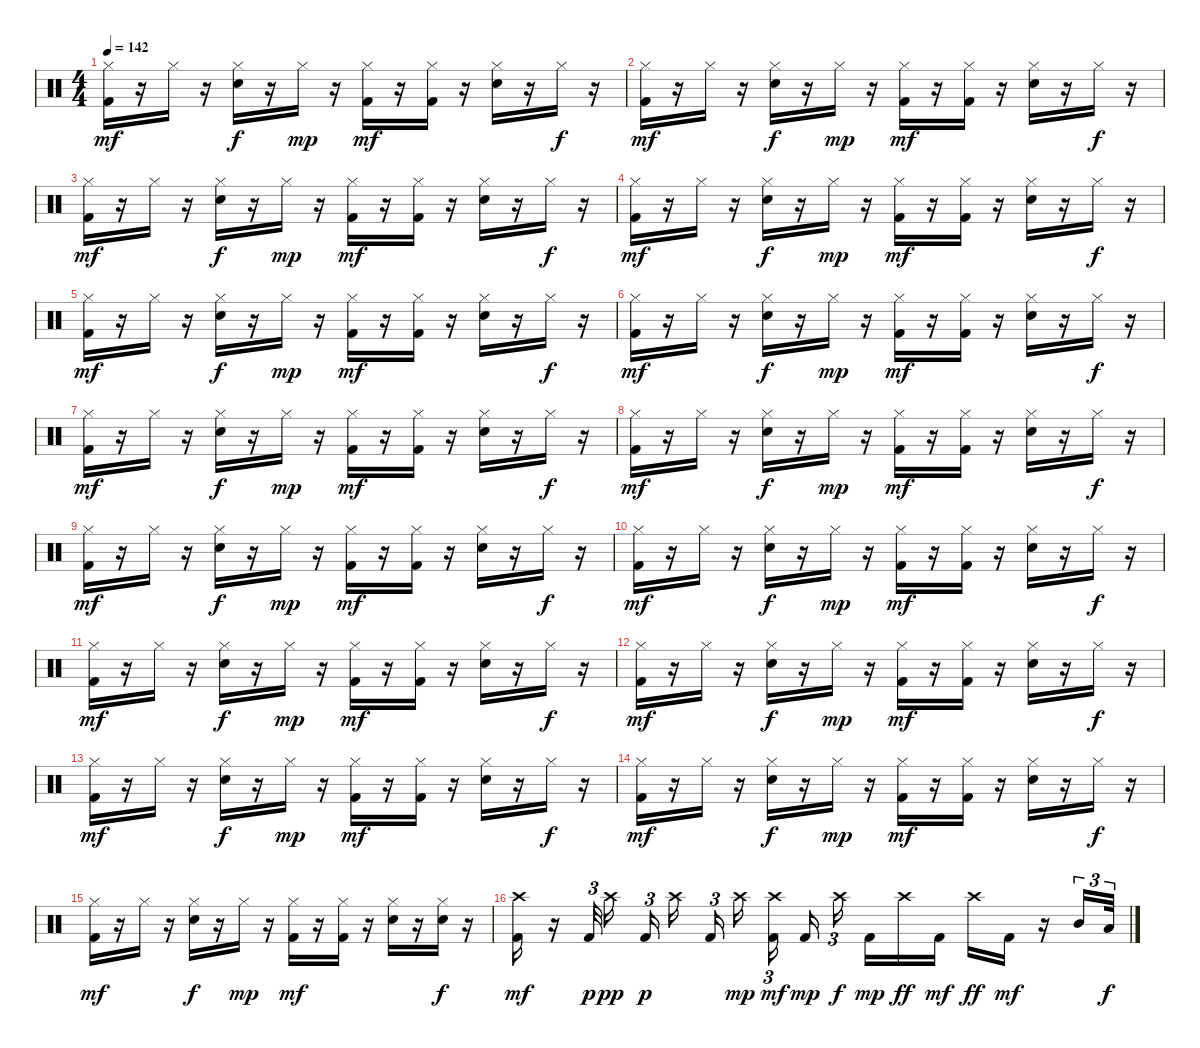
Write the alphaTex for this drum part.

\track "" {instrument percussion}
\staff {score}
\articulation defaults
\ts (4 4)
\tempo 142
\clef neutral
\ks c
("Hi-Hat (closed)" "Kick (hit) 2").16{dy mf} r.16 "Hi-Hat (closed)".16 r.16 ("Electric Snare (hit)" "Hi-Hat (closed)").16{dy f} r.16 "Hi-Hat (closed)".16{dy mp} r.16 ("Kick (hit) 2" "Hi-Hat (closed)").16{dy mf} r.16 ("Hi-Hat (closed)" "Kick (hit) 2").16 r.16 ("Hi-Hat (closed)" "Electric Snare (hit)").16 r.16 "Hi-Hat (closed)".16{dy f} r.16 |
("Hi-Hat (closed)" "Kick (hit) 2").16{dy mf} r.16 "Hi-Hat (closed)".16 r.16 ("Hi-Hat (closed)" "Electric Snare (hit)").16{dy f} r.16 "Hi-Hat (closed)".16{dy mp} r.16 ("Hi-Hat (closed)" "Kick (hit) 2").16{dy mf} r.16 ("Hi-Hat (closed)" "Kick (hit) 2").16 r.16 ("Electric Snare (hit)" "Hi-Hat (closed)").16 r.16 "Hi-Hat (closed)".16{dy f} r.16 |
("Hi-Hat (closed)" "Kick (hit) 2").16{dy mf} r.16 "Hi-Hat (closed)".16 r.16 ("Electric Snare (hit)" "Hi-Hat (closed)").16{dy f} r.16 "Hi-Hat (closed)".16{dy mp} r.16 ("Kick (hit) 2" "Hi-Hat (closed)").16{dy mf} r.16 ("Hi-Hat (closed)" "Kick (hit) 2").16 r.16 ("Electric Snare (hit)" "Hi-Hat (closed)").16 r.16 "Hi-Hat (closed)".16{dy f} r.16 |
("Kick (hit) 2" "Hi-Hat (closed)").16{dy mf} r.16 "Hi-Hat (closed)".16 r.16 ("Hi-Hat (closed)" "Electric Snare (hit)").16{dy f} r.16 "Hi-Hat (closed)".16{dy mp} r.16 ("Kick (hit) 2" "Hi-Hat (closed)").16{dy mf} r.16 ("Kick (hit) 2" "Hi-Hat (closed)").16 r.16 ("Electric Snare (hit)" "Hi-Hat (closed)").16 r.16 "Hi-Hat (closed)".16{dy f} r.16 |
("Kick (hit) 2" "Hi-Hat (closed)").16{dy mf} r.16 "Hi-Hat (closed)".16 r.16 ("Electric Snare (hit)" "Hi-Hat (closed)").16{dy f} r.16 "Hi-Hat (closed)".16{dy mp} r.16 ("Hi-Hat (closed)" "Kick (hit) 2").16{dy mf} r.16 ("Kick (hit) 2" "Hi-Hat (closed)").16 r.16 ("Electric Snare (hit)" "Hi-Hat (closed)").16 r.16 "Hi-Hat (closed)".16{dy f} r.16 |
("Kick (hit) 2" "Hi-Hat (closed)").16{dy mf} r.16 "Hi-Hat (closed)".16 r.16 ("Electric Snare (hit)" "Hi-Hat (closed)").16{dy f} r.16 "Hi-Hat (closed)".16{dy mp} r.16 ("Kick (hit) 2" "Hi-Hat (closed)").16{dy mf} r.16 ("Kick (hit) 2" "Hi-Hat (closed)").16 r.16 ("Hi-Hat (closed)" "Electric Snare (hit)").16 r.16 "Hi-Hat (closed)".16{dy f} r.16 |
("Hi-Hat (closed)" "Kick (hit) 2").16{dy mf} r.16 "Hi-Hat (closed)".16 r.16 ("Hi-Hat (closed)" "Electric Snare (hit)").16{dy f} r.16 "Hi-Hat (closed)".16{dy mp} r.16 ("Hi-Hat (closed)" "Kick (hit) 2").16{dy mf} r.16 ("Hi-Hat (closed)" "Kick (hit) 2").16 r.16 ("Electric Snare (hit)" "Hi-Hat (closed)").16 r.16 "Hi-Hat (closed)".16{dy f} r.16 |
("Hi-Hat (closed)" "Kick (hit) 2").16{dy mf} r.16 "Hi-Hat (closed)".16 r.16 ("Hi-Hat (closed)" "Electric Snare (hit)").16{dy f} r.16 "Hi-Hat (closed)".16{dy mp} r.16 ("Kick (hit) 2" "Hi-Hat (closed)").16{dy mf} r.16 ("Kick (hit) 2" "Hi-Hat (closed)").16 r.16 ("Hi-Hat (closed)" "Electric Snare (hit)").16 r.16 "Hi-Hat (closed)".16{dy f} r.16 |
("Hi-Hat (closed)" "Kick (hit) 2").16{dy mf} r.16 "Hi-Hat (closed)".16 r.16 ("Electric Snare (hit)" "Hi-Hat (closed)").16{dy f} r.16 "Hi-Hat (closed)".16{dy mp} r.16 ("Kick (hit) 2" "Hi-Hat (closed)").16{dy mf} r.16 ("Hi-Hat (closed)" "Kick (hit) 2").16 r.16 ("Hi-Hat (closed)" "Electric Snare (hit)").16 r.16 "Hi-Hat (closed)".16{dy f} r.16 |
("Hi-Hat (closed)" "Kick (hit) 2").16{dy mf} r.16 "Hi-Hat (closed)".16 r.16 ("Hi-Hat (closed)" "Electric Snare (hit)").16{dy f} r.16 "Hi-Hat (closed)".16{dy mp} r.16 ("Hi-Hat (closed)" "Kick (hit) 2").16{dy mf} r.16 ("Hi-Hat (closed)" "Kick (hit) 2").16 r.16 ("Hi-Hat (closed)" "Electric Snare (hit)").16 r.16 "Hi-Hat (closed)".16{dy f} r.16 |
("Kick (hit) 2" "Hi-Hat (closed)").16{dy mf} r.16 "Hi-Hat (closed)".16 r.16 ("Hi-Hat (closed)" "Electric Snare (hit)").16{dy f} r.16 "Hi-Hat (closed)".16{dy mp} r.16 ("Kick (hit) 2" "Hi-Hat (closed)").16{dy mf} r.16 ("Hi-Hat (closed)" "Kick (hit) 2").16 r.16 ("Electric Snare (hit)" "Hi-Hat (closed)").16 r.16 "Hi-Hat (closed)".16{dy f} r.16 |
("Hi-Hat (closed)" "Kick (hit) 2").16{dy mf} r.16 "Hi-Hat (closed)".16 r.16 ("Hi-Hat (closed)" "Electric Snare (hit)").16{dy f} r.16 "Hi-Hat (closed)".16{dy mp} r.16 ("Hi-Hat (closed)" "Kick (hit) 2").16{dy mf} r.16 ("Kick (hit) 2" "Hi-Hat (closed)").16 r.16 ("Hi-Hat (closed)" "Electric Snare (hit)").16 r.16 "Hi-Hat (closed)".16{dy f} r.16 |
("Kick (hit) 2" "Hi-Hat (closed)").16{dy mf} r.16 "Hi-Hat (closed)".16 r.16 ("Hi-Hat (closed)" "Electric Snare (hit)").16{dy f} r.16 "Hi-Hat (closed)".16{dy mp} r.16 ("Kick (hit) 2" "Hi-Hat (closed)").16{dy mf} r.16 ("Hi-Hat (closed)" "Kick (hit) 2").16 r.16 ("Electric Snare (hit)" "Hi-Hat (closed)").16 r.16 "Hi-Hat (closed)".16{dy f} r.16 |
("Kick (hit) 2" "Hi-Hat (closed)").16{dy mf} r.16 "Hi-Hat (closed)".16 r.16 ("Electric Snare (hit)" "Hi-Hat (closed)").16{dy f} r.16 "Hi-Hat (closed)".16{dy mp} r.16 ("Kick (hit) 2" "Hi-Hat (closed)").16{dy mf} r.16 ("Kick (hit) 2" "Hi-Hat (closed)").16 r.16 ("Hi-Hat (closed)" "Electric Snare (hit)").16 r.16 "Hi-Hat (closed)".16{dy f} r.16 |
("Hi-Hat (closed)" "Kick (hit) 2").16{dy mf} r.16 "Hi-Hat (closed)".16 r.16 ("Hi-Hat (closed)" "Electric Snare (hit)").16{dy f} r.16 "Hi-Hat (closed)".16{dy mp} r.16 ("Hi-Hat (closed)" "Kick (hit) 2").16{dy mf} r.16 ("Kick (hit) 2" "Hi-Hat (closed)").16 r.16 ("Electric Snare (hit)" "Hi-Hat (closed)").16 r.16 ("Electric Snare (hit)" "Hi-Hat (closed)").16{dy f} r.16 |
("Kick (hit) 2" "Crash high (hit)").16{dy mf} r.16 "Kick (hit) 2".32{tu (3 2) dy p beam splitsecondary} "Crash high (hit)".16{dy pp} "Kick (hit) 2".16{tu (3 2) dy p} "Crash high (hit)".16{beam splitsecondary} "Kick (hit) 2".16{tu (3 2) beam splitsecondary} "Crash high (hit)".16{dy mp beam splitsecondary} ("Kick (hit) 2" "Crash high (hit)").16{tu (3 2) dy mf} "Kick (hit) 2".16{dy mp} "Crash high (hit)".16{tu (3 2) dy f beam splitsecondary} "Kick (hit) 2".16{dy mp} "Crash high (hit)".16{dy ff} "Kick (hit) 2".16{dy mf} "Crash high (hit)".16{dy ff} "Kick (hit) 2".16{dy mf} r.16 "Mid Tom (hit)".16{tu (3 2)} "Low Tom (hit)".32{tu (3 2) dy f}
